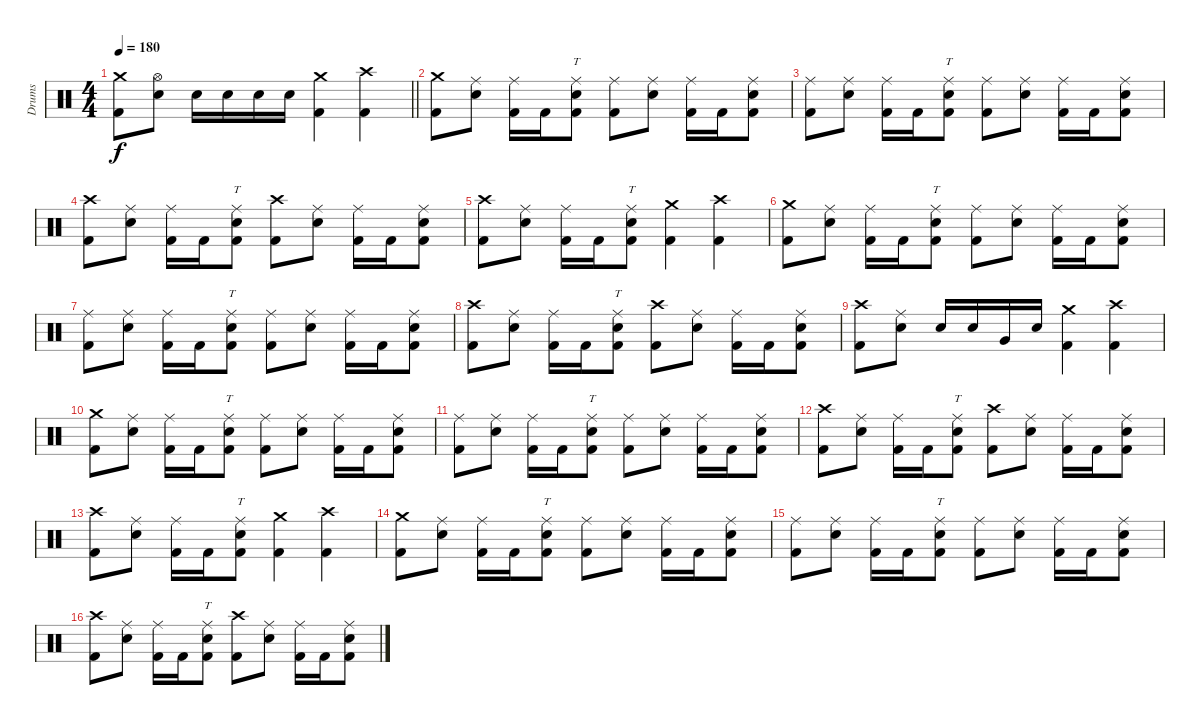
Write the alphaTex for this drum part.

\track ("Drums" "Drums") {instrument percussion}
\staff {score}
\articulation defaults
\ts (4 4)
\tempo 180
\clef neutral
\barLineRight lightlight
\ks c
("Crash medium (hit)" "Kick (hit) 2").8{dy f} ("Hi-Hat (open)" "Electric Snare (hit)").8 "Electric Snare (hit)".16 "Electric Snare (hit)".16 "Electric Snare (hit)".16 "Electric Snare (hit)".16 ("Crash medium (hit)" "Kick (hit) 2").4 ("Crash high (hit)" "Kick (hit) 2").4 |
("Crash medium (hit)" "Kick (hit) 2").8 ("Ride (middle)" "Electric Snare (hit)").8 ("Ride (middle)" "Kick (hit) 2").16 "Kick (hit) 2".16 ("Ride (middle)" "Electric Snare (hit)" "Kick (hit) 2").8{tt} ("Ride (middle)" "Kick (hit) 2").8 ("Ride (middle)" "Electric Snare (hit)").8 ("Ride (middle)" "Kick (hit) 2").16 "Kick (hit) 2".16 ("Ride (middle)" "Electric Snare (hit)" "Kick (hit) 2").8 |
("Ride (middle)" "Kick (hit) 2").8 ("Ride (middle)" "Electric Snare (hit)").8 ("Ride (middle)" "Kick (hit) 2").16 "Kick (hit) 2".16 ("Ride (middle)" "Electric Snare (hit)" "Kick (hit) 2").8{tt} ("Ride (middle)" "Kick (hit) 2").8 ("Ride (middle)" "Electric Snare (hit)").8 ("Ride (middle)" "Kick (hit) 2").16 "Kick (hit) 2".16 ("Ride (middle)" "Electric Snare (hit)" "Kick (hit) 2").8 |
("Crash high (hit)" "Kick (hit) 2").8 ("Ride (middle)" "Electric Snare (hit)").8 ("Ride (middle)" "Kick (hit) 2").16 "Kick (hit) 2".16 ("Ride (middle)" "Electric Snare (hit)" "Kick (hit) 2").8{tt} ("Crash high (hit)" "Kick (hit) 2").8 ("Ride (middle)" "Electric Snare (hit)").8 ("Ride (middle)" "Kick (hit) 2").16 "Kick (hit) 2".16 ("Ride (middle)" "Electric Snare (hit)" "Kick (hit) 2").8 |
("Crash high (hit)" "Kick (hit) 2").8 ("Ride (middle)" "Electric Snare (hit)").8 ("Ride (middle)" "Kick (hit) 2").16 "Kick (hit) 2".16 ("Ride (middle)" "Electric Snare (hit)" "Kick (hit) 2").8{tt} ("Crash medium (hit)" "Kick (hit) 2").4 ("Crash high (hit)" "Kick (hit) 2").4 |
("Crash medium (hit)" "Kick (hit) 2").8 ("Ride (middle)" "Electric Snare (hit)").8 ("Ride (middle)" "Kick (hit) 2").16 "Kick (hit) 2".16 ("Ride (middle)" "Electric Snare (hit)" "Kick (hit) 2").8{tt} ("Ride (middle)" "Kick (hit) 2").8 ("Ride (middle)" "Electric Snare (hit)").8 ("Ride (middle)" "Kick (hit) 2").16 "Kick (hit) 2".16 ("Ride (middle)" "Electric Snare (hit)" "Kick (hit) 2").8 |
("Ride (middle)" "Kick (hit) 2").8 ("Ride (middle)" "Electric Snare (hit)").8 ("Ride (middle)" "Kick (hit) 2").16 "Kick (hit) 2".16 ("Ride (middle)" "Electric Snare (hit)" "Kick (hit) 2").8{tt} ("Ride (middle)" "Kick (hit) 2").8 ("Ride (middle)" "Electric Snare (hit)").8 ("Ride (middle)" "Kick (hit) 2").16 "Kick (hit) 2".16 ("Ride (middle)" "Electric Snare (hit)" "Kick (hit) 2").8 |
("Crash high (hit)" "Kick (hit) 2").8 ("Ride (middle)" "Electric Snare (hit)").8 ("Ride (middle)" "Kick (hit) 2").16 "Kick (hit) 2".16 ("Ride (middle)" "Electric Snare (hit)" "Kick (hit) 2").8{tt} ("Crash high (hit)" "Kick (hit) 2").8 ("Ride (middle)" "Electric Snare (hit)").8 ("Ride (middle)" "Kick (hit) 2").16 "Kick (hit) 2".16 ("Ride (middle)" "Electric Snare (hit)" "Kick (hit) 2").8 |
("Crash high (hit)" "Kick (hit) 2").8 ("Ride (middle)" "Electric Snare (hit)").8 "Electric Snare (hit)".16 "Electric Snare (hit)".16 "Very Low Tom (hit)".16 "Electric Snare (hit)".16 ("Crash medium (hit)" "Kick (hit) 2").4 ("Crash high (hit)" "Kick (hit) 2").4 |
("Crash medium (hit)" "Kick (hit) 2").8 ("Ride (middle)" "Electric Snare (hit)").8 ("Ride (middle)" "Kick (hit) 2").16 "Kick (hit) 2".16 ("Ride (middle)" "Electric Snare (hit)" "Kick (hit) 2").8{tt} ("Ride (middle)" "Kick (hit) 2").8 ("Ride (middle)" "Electric Snare (hit)").8 ("Ride (middle)" "Kick (hit) 2").16 "Kick (hit) 2".16 ("Ride (middle)" "Electric Snare (hit)" "Kick (hit) 2").8 |
("Ride (middle)" "Kick (hit) 2").8 ("Ride (middle)" "Electric Snare (hit)").8 ("Ride (middle)" "Kick (hit) 2").16 "Kick (hit) 2".16 ("Ride (middle)" "Electric Snare (hit)" "Kick (hit) 2").8{tt} ("Ride (middle)" "Kick (hit) 2").8 ("Ride (middle)" "Electric Snare (hit)").8 ("Ride (middle)" "Kick (hit) 2").16 "Kick (hit) 2".16 ("Ride (middle)" "Electric Snare (hit)" "Kick (hit) 2").8 |
("Crash high (hit)" "Kick (hit) 2").8 ("Ride (middle)" "Electric Snare (hit)").8 ("Ride (middle)" "Kick (hit) 2").16 "Kick (hit) 2".16 ("Ride (middle)" "Electric Snare (hit)" "Kick (hit) 2").8{tt} ("Crash high (hit)" "Kick (hit) 2").8 ("Ride (middle)" "Electric Snare (hit)").8 ("Ride (middle)" "Kick (hit) 2").16 "Kick (hit) 2".16 ("Ride (middle)" "Electric Snare (hit)" "Kick (hit) 2").8 |
("Crash high (hit)" "Kick (hit) 2").8 ("Ride (middle)" "Electric Snare (hit)").8 ("Ride (middle)" "Kick (hit) 2").16 "Kick (hit) 2".16 ("Ride (middle)" "Electric Snare (hit)" "Kick (hit) 2").8{tt} ("Crash medium (hit)" "Kick (hit) 2").4 ("Crash high (hit)" "Kick (hit) 2").4 |
("Crash medium (hit)" "Kick (hit) 2").8 ("Ride (middle)" "Electric Snare (hit)").8 ("Ride (middle)" "Kick (hit) 2").16 "Kick (hit) 2".16 ("Ride (middle)" "Electric Snare (hit)" "Kick (hit) 2").8{tt} ("Ride (middle)" "Kick (hit) 2").8 ("Ride (middle)" "Electric Snare (hit)").8 ("Ride (middle)" "Kick (hit) 2").16 "Kick (hit) 2".16 ("Ride (middle)" "Electric Snare (hit)" "Kick (hit) 2").8 |
("Ride (middle)" "Kick (hit) 2").8 ("Ride (middle)" "Electric Snare (hit)").8 ("Ride (middle)" "Kick (hit) 2").16 "Kick (hit) 2".16 ("Ride (middle)" "Electric Snare (hit)" "Kick (hit) 2").8{tt} ("Ride (middle)" "Kick (hit) 2").8 ("Ride (middle)" "Electric Snare (hit)").8 ("Ride (middle)" "Kick (hit) 2").16 "Kick (hit) 2".16 ("Ride (middle)" "Electric Snare (hit)" "Kick (hit) 2").8 |
("Crash high (hit)" "Kick (hit) 2").8 ("Ride (middle)" "Electric Snare (hit)").8 ("Ride (middle)" "Kick (hit) 2").16 "Kick (hit) 2".16 ("Ride (middle)" "Electric Snare (hit)" "Kick (hit) 2").8{tt} ("Crash high (hit)" "Kick (hit) 2").8 ("Ride (middle)" "Electric Snare (hit)").8 ("Ride (middle)" "Kick (hit) 2").16 "Kick (hit) 2".16 ("Ride (middle)" "Electric Snare (hit)" "Kick (hit) 2").8
